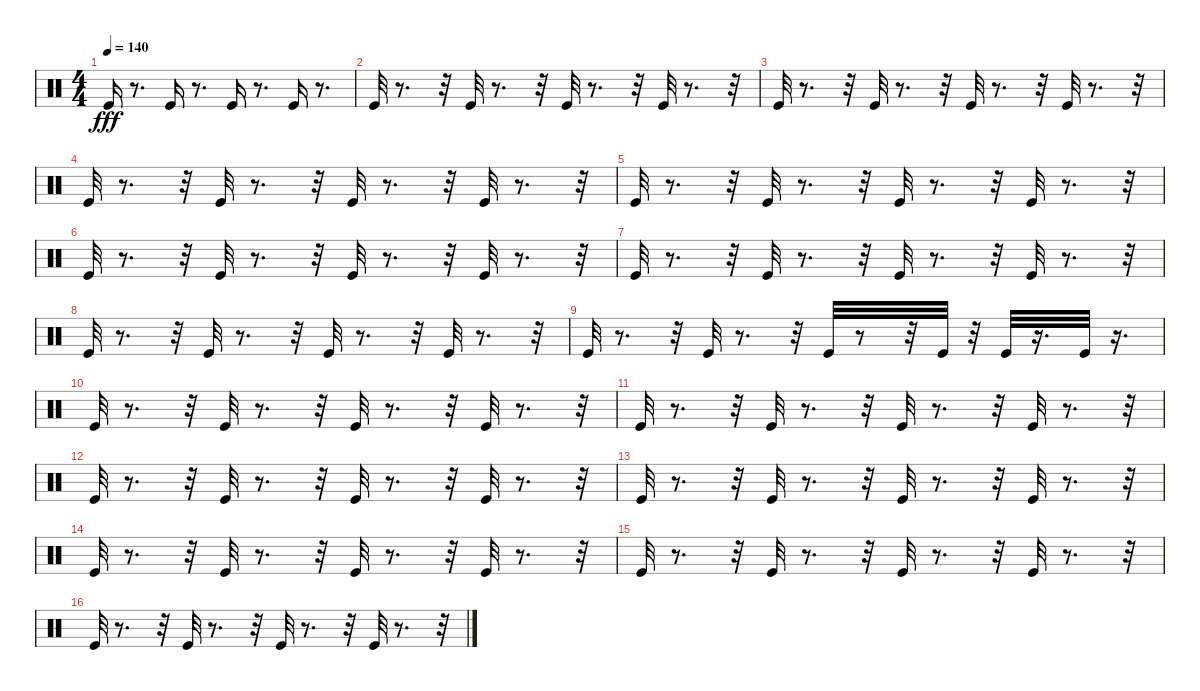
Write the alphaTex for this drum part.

\track "" {instrument percussion}
\staff {score}
\articulation defaults
\ts (4 4)
\tempo 140
\clef neutral
\ks c "Kick (hit)".16{dy fff}
r.8{d} "Kick (hit)".16 r.8{d} "Kick (hit)".16 r.8{d} "Kick (hit)".16 r.8{d} |
"Kick (hit)".32 r.8{d} r.32 "Kick (hit)".32 r.8{d} r.32 "Kick (hit)".32 r.8{d} r.32 "Kick (hit)".32 r.8{d} r.32 |
"Kick (hit)".32 r.8{d} r.32 "Kick (hit)".32 r.8{d} r.32 "Kick (hit)".32 r.8{d} r.32 "Kick (hit)".32 r.8{d} r.32 |
"Kick (hit)".32 r.8{d} r.32 "Kick (hit)".32 r.8{d} r.32 "Kick (hit)".32 r.8{d} r.32 "Kick (hit)".32 r.8{d} r.32 |
"Kick (hit)".32 r.8{d} r.32 "Kick (hit)".32 r.8{d} r.32 "Kick (hit)".32 r.8{d} r.32 "Kick (hit)".32 r.8{d} r.32 |
"Kick (hit)".32 r.8{d} r.32 "Kick (hit)".32 r.8{d} r.32 "Kick (hit)".32 r.8{d} r.32 "Kick (hit)".32 r.8{d} r.32 |
"Kick (hit)".32 r.8{d} r.32 "Kick (hit)".32 r.8{d} r.32 "Kick (hit)".32 r.8{d} r.32 "Kick (hit)".32 r.8{d} r.32 |
"Kick (hit)".32 r.8{d} r.32 "Kick (hit)".32 r.8{d} r.32 "Kick (hit)".32 r.8{d} r.32 "Kick (hit)".32 r.8{d} r.32 |
"Kick (hit)".32 r.8{d} r.32 "Kick (hit)".32 r.8{d} r.32 "Kick (hit)".32 r.8 r.32 "Kick (hit)".32 r.32 "Kick (hit)".32 r.16{d} "Kick (hit)".32 r.16{d} |
"Kick (hit)".32 r.8{d} r.32 "Kick (hit)".32 r.8{d} r.32 "Kick (hit)".32 r.8{d} r.32 "Kick (hit)".32 r.8{d} r.32 |
"Kick (hit)".32 r.8{d} r.32 "Kick (hit)".32 r.8{d} r.32 "Kick (hit)".32 r.8{d} r.32 "Kick (hit)".32 r.8{d} r.32 |
"Kick (hit)".32 r.8{d} r.32 "Kick (hit)".32 r.8{d} r.32 "Kick (hit)".32 r.8{d} r.32 "Kick (hit)".32 r.8{d} r.32 |
"Kick (hit)".32 r.8{d} r.32 "Kick (hit)".32 r.8{d} r.32 "Kick (hit)".32 r.8{d} r.32 "Kick (hit)".32 r.8{d} r.32 |
"Kick (hit)".32 r.8{d} r.32 "Kick (hit)".32 r.8{d} r.32 "Kick (hit)".32 r.8{d} r.32 "Kick (hit)".32 r.8{d} r.32 |
"Kick (hit)".32 r.8{d} r.32 "Kick (hit)".32 r.8{d} r.32 "Kick (hit)".32 r.8{d} r.32 "Kick (hit)".32 r.8{d} r.32 |
"Kick (hit)".32 r.8{d} r.32 "Kick (hit)".32 r.8{d} r.32 "Kick (hit)".32 r.8{d} r.32 "Kick (hit)".32 r.8{d} r.32
